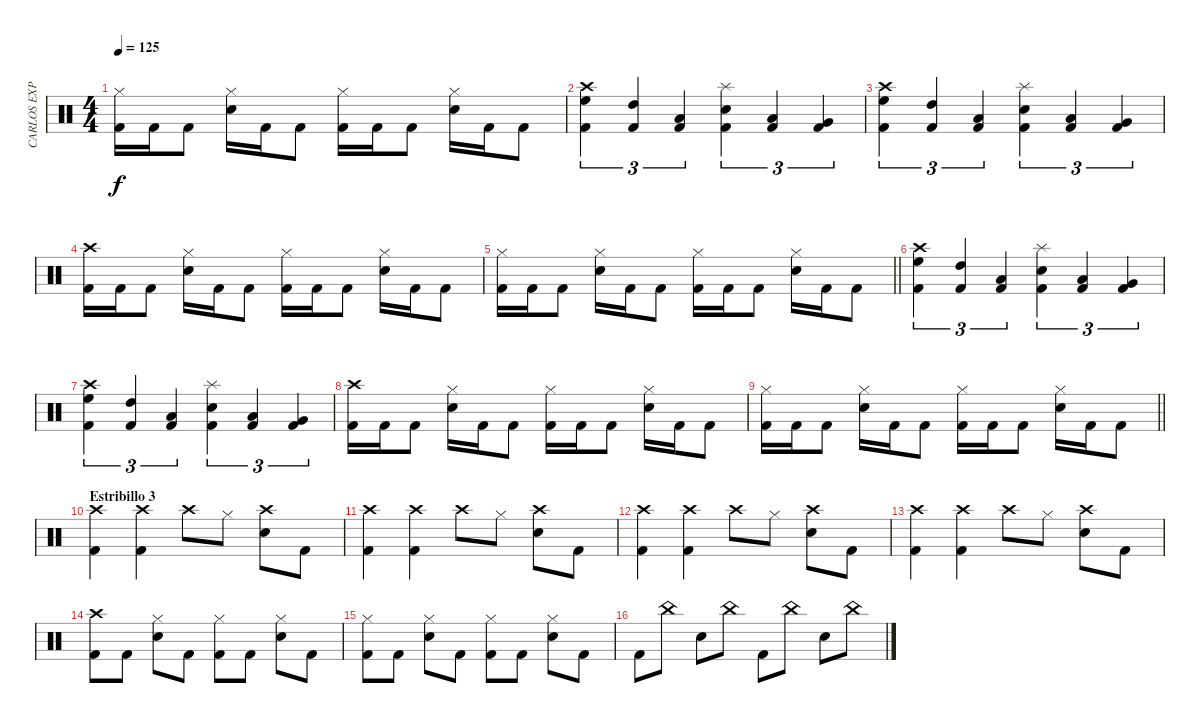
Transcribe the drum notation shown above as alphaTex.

\track ("CARLOS EXPÓSITO" "CARLOS EXP") {instrument percussion}
\staff {score}
\articulation defaults
\ts (4 4)
\tempo 125
\clef neutral
\ks c
("Kick (hit) 2" "Hi-Hat (closed)").16{dy f} "Kick (hit) 2".16 "Kick (hit) 2".8 ("Snare (hit) 2" "Hi-Hat (closed)").16 "Kick (hit) 2".16 "Kick (hit) 2".8 ("Kick (hit) 2" "Hi-Hat (closed)").16 "Kick (hit) 2".16 "Kick (hit) 2".8 ("Snare (hit) 2" "Hi-Hat (closed)").16 "Kick (hit) 2".16 "Kick (hit) 2".8 |
("High Floor Tom (hit)" "Crash high (hit)" "Kick (hit) 2").4{tu (3 2)} ("High Tom (hit)" "Kick (hit) 2").4{tu (3 2)} ("Low Tom (hit)" "Kick (hit) 2").4{tu (3 2)} ("Snare (hit) 2" "Splash (hit)" "Kick (hit) 2").4{tu (3 2)} ("Low Tom (hit)" "Kick (hit) 2").4{tu (3 2)} ("Very Low Tom (hit)" "Kick (hit) 2").4{tu (3 2)} |
("High Floor Tom (hit)" "Crash high (hit)" "Kick (hit) 2").4{tu (3 2)} ("High Tom (hit)" "Kick (hit) 2").4{tu (3 2)} ("Low Tom (hit)" "Kick (hit) 2").4{tu (3 2)} ("Snare (hit) 2" "Splash (hit)" "Kick (hit) 2").4{tu (3 2)} ("Low Tom (hit)" "Kick (hit) 2").4{tu (3 2)} ("Very Low Tom (hit)" "Kick (hit) 2").4{tu (3 2)} |
("Kick (hit) 2" "Crash high (hit)").16 "Kick (hit) 2".16 "Kick (hit) 2".8 ("Snare (hit) 2" "Hi-Hat (closed)").16 "Kick (hit) 2".16 "Kick (hit) 2".8 ("Kick (hit) 2" "Hi-Hat (closed)").16 "Kick (hit) 2".16 "Kick (hit) 2".8 ("Snare (hit) 2" "Hi-Hat (closed)").16 "Kick (hit) 2".16 "Kick (hit) 2".8 |
\barLineRight lightlight
("Kick (hit) 2" "Hi-Hat (closed)").16 "Kick (hit) 2".16 "Kick (hit) 2".8 ("Snare (hit) 2" "Hi-Hat (closed)").16 "Kick (hit) 2".16 "Kick (hit) 2".8 ("Kick (hit) 2" "Hi-Hat (closed)").16 "Kick (hit) 2".16 "Kick (hit) 2".8 ("Snare (hit) 2" "Hi-Hat (closed)").16 "Kick (hit) 2".16 "Kick (hit) 2".8 |
("High Floor Tom (hit)" "Crash high (hit)" "Kick (hit) 2").4{tu (3 2)} ("High Tom (hit)" "Kick (hit) 2").4{tu (3 2)} ("Low Tom (hit)" "Kick (hit) 2").4{tu (3 2)} ("Snare (hit) 2" "Splash (hit)" "Kick (hit) 2").4{tu (3 2)} ("Low Tom (hit)" "Kick (hit) 2").4{tu (3 2)} ("Very Low Tom (hit)" "Kick (hit) 2").4{tu (3 2)} |
("High Floor Tom (hit)" "Crash high (hit)" "Kick (hit) 2").4{tu (3 2)} ("High Tom (hit)" "Kick (hit) 2").4{tu (3 2)} ("Low Tom (hit)" "Kick (hit) 2").4{tu (3 2)} ("Snare (hit) 2" "Splash (hit)" "Kick (hit) 2").4{tu (3 2)} ("Low Tom (hit)" "Kick (hit) 2").4{tu (3 2)} ("Very Low Tom (hit)" "Kick (hit) 2").4{tu (3 2)} |
("Kick (hit) 2" "Crash high (hit)").16 "Kick (hit) 2".16 "Kick (hit) 2".8 ("Snare (hit) 2" "Hi-Hat (closed)").16 "Kick (hit) 2".16 "Kick (hit) 2".8 ("Kick (hit) 2" "Hi-Hat (closed)").16 "Kick (hit) 2".16 "Kick (hit) 2".8 ("Snare (hit) 2" "Hi-Hat (closed)").16 "Kick (hit) 2".16 "Kick (hit) 2".8 |
\barLineRight lightlight
("Kick (hit) 2" "Hi-Hat (closed)").16 "Kick (hit) 2".16 "Kick (hit) 2".8 ("Snare (hit) 2" "Hi-Hat (closed)").16 "Kick (hit) 2".16 "Kick (hit) 2".8 ("Kick (hit) 2" "Hi-Hat (closed)").16 "Kick (hit) 2".16 "Kick (hit) 2".8 ("Snare (hit) 2" "Hi-Hat (closed)").16 "Kick (hit) 2".16 "Kick (hit) 2".8 |
\section ("" "Estribillo 3")
("Crash high (hit)" "Kick (hit) 2").4 ("Kick (hit) 2" "Crash high (hit)").4 "Crash high (hit)".8 "Hi-Hat (closed)".8 ("Crash high (hit)" "Snare (hit) 2").8 "Kick (hit) 2".8 |
("Crash high (hit)" "Kick (hit) 2").4 ("Kick (hit) 2" "Crash high (hit)").4 "Crash high (hit)".8 "Hi-Hat (closed)".8 ("Crash high (hit)" "Snare (hit) 2").8 "Kick (hit) 2".8 |
("Crash high (hit)" "Kick (hit) 2").4 ("Kick (hit) 2" "Crash high (hit)").4 "Crash high (hit)".8 "Hi-Hat (closed)".8 ("Crash high (hit)" "Snare (hit) 2").8 "Kick (hit) 2".8 |
("Crash high (hit)" "Kick (hit) 2").4 ("Kick (hit) 2" "Crash high (hit)").4 "Crash high (hit)".8 "Hi-Hat (closed)".8 ("Crash high (hit)" "Snare (hit) 2").8 "Kick (hit) 2".8 |
("Crash high (hit)" "Kick (hit) 2").8 "Kick (hit) 2".8 ("Hi-Hat (closed)" "Snare (hit) 2").8 "Kick (hit) 2".8 ("Hi-Hat (closed)" "Kick (hit) 2").8 "Kick (hit) 2".8 ("Hi-Hat (closed)" "Snare (hit) 2").8 "Kick (hit) 2".8 |
("Hi-Hat (closed)" "Kick (hit) 2").8 "Kick (hit) 2".8 ("Hi-Hat (closed)" "Snare (hit) 2").8 "Kick (hit) 2".8 ("Hi-Hat (closed)" "Kick (hit) 2").8 "Kick (hit) 2".8 ("Hi-Hat (closed)" "Snare (hit) 2").8 "Kick (hit) 2".8 |
"Kick (hit) 2".8 "China (hit)".8 "Snare (hit) 2".8 "China (hit)".8 "Kick (hit) 2".8 "China (hit)".8 "Snare (hit) 2".8 "China (hit)".8
